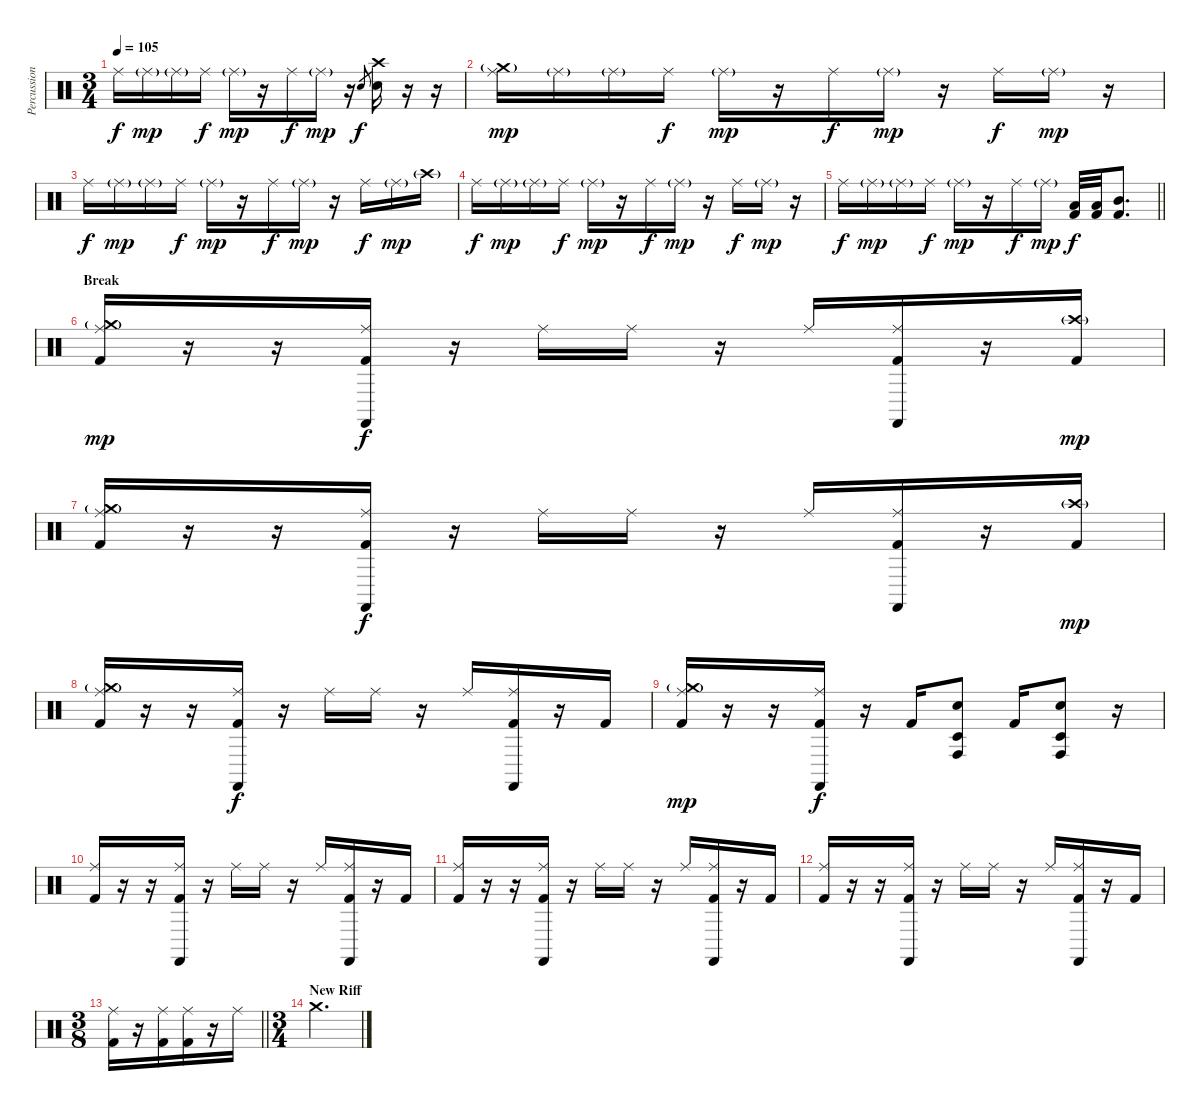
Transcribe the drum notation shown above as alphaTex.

\track ("Percussion" "Percussion") {instrument percussion}
\staff {score}
\articulation defaults
\ts (3 4)
\tempo 105
\clef neutral
\ks c "Ride (middle)".16{dy f} "Ride (middle)"{g}.16{dy mp} "Ride (middle)"{g}.16 "Ride (middle)".16{dy f} "Ride (middle)"{g}.16{dy mp}
r.16 "Ride (middle)".16{dy f} "Ride (middle)"{g}.16{dy mp} r.16 "Electric Snare (hit)".8{gr dy f} ("Crash high (hit)" "Electric Snare (hit)").16 r.16 r.16 |
("Crash medium (hit)"{g} "Ride (middle)").16{dy mp} "Ride (middle)"{g}.16 "Ride (middle)"{g}.16 "Ride (middle)".16{dy f} "Ride (middle)"{g}.16{dy mp} r.16 "Ride (middle)".16{dy f} "Ride (middle)"{g}.16{dy mp} r.16 "Ride (middle)".16{dy f} "Ride (middle)"{g}.16{dy mp} r.16 |
"Ride (middle)".16{dy f} "Ride (middle)"{g}.16{dy mp} "Ride (middle)"{g}.16 "Ride (middle)".16{dy f} "Ride (middle)"{g}.16{dy mp} r.16 "Ride (middle)".16{dy f} "Ride (middle)"{g}.16{dy mp} r.16 "Ride (middle)".16{dy f} "Ride (middle)"{g}.16{dy mp} "Crash high (hit)"{g}.16 |
"Ride (middle)".16{dy f} "Ride (middle)"{g}.16{dy mp} "Ride (middle)"{g}.16 "Ride (middle)".16{dy f} "Ride (middle)"{g}.16{dy mp} r.16 "Ride (middle)".16{dy f} "Ride (middle)"{g}.16{dy mp} r.16 "Ride (middle)".16{dy f} "Ride (middle)"{g}.16{dy mp} r.16 |
\barLineRight lightlight "Ride (middle)".16{dy f} "Ride (middle)"{g}.16{dy mp} "Ride (middle)"{g}.16 "Ride (middle)".16{dy f} "Ride (middle)"{g}.16{dy mp}
r.16 "Ride (middle)".16{dy f} "Ride (middle)"{g}.16{dy mp} ("Low Tom (hit)" "Kick (hit) 2").32{dy f} ("Low Tom (hit)" "Kick (hit) 2").32 ("Mid Tom (hit)" "Kick (hit) 2").8{d} |
\section ("" "Break")
("Crash medium (hit)"{g} "Ride (middle)" "Kick (hit) 2").16{dy mp} r.16 r.16 ("Ride (middle)" "Castanets (hit)" "Kick (hit) 2").16{dy f} r.16 "Ride (middle)".16 "Ride (middle)".16 r.16 "Ride (middle)".16 ("Ride (middle)" "Castanets (hit)" "Kick (hit) 2").16 r.16 ("Crash high (hit)"{g} "Kick (hit) 2").16{dy mp} |
("Crash medium (hit)"{g} "Ride (middle)" "Kick (hit) 2").16 r.16 r.16 ("Ride (middle)" "Castanets (hit)" "Kick (hit) 2").16{dy f} r.16 "Ride (middle)".16 "Ride (middle)".16 r.16 "Ride (middle)".16 ("Ride (middle)" "Castanets (hit)" "Kick (hit) 2").16 r.16 ("Crash high (hit)"{g} "Kick (hit) 2").16{dy mp} |
("Crash medium (hit)"{g} "Ride (middle)" "Kick (hit) 2").16 r.16 r.16 ("Ride (middle)" "Castanets (hit)" "Kick (hit) 2").16{dy f} r.16 "Ride (middle)".16 "Ride (middle)".16 r.16 "Ride (middle)".16 ("Ride (middle)" "Castanets (hit)" "Kick (hit) 2").16 r.16 "Kick (hit) 2".16 |
("Crash medium (hit)"{g} "Ride (middle)" "Kick (hit) 2").16{dy mp} r.16 r.16 ("Ride (middle)" "Castanets (hit)" "Kick (hit) 2").16{dy f} r.16 "Kick (hit) 2".16 ("Conga high (hit)" "Timbale low (hit)" "Electric Snare (hit)").8 "Kick (hit) 2".16 ("Conga high (hit)" "Timbale low (hit)" "Electric Snare (hit)").8 r.16 |
("Ride (middle)" "Kick (hit) 2").16 r.16 r.16 ("Ride (middle)" "Castanets (hit)" "Kick (hit) 2").16 r.16 "Ride (middle)".16 "Ride (middle)".16 r.16 "Ride (middle)".16 ("Ride (middle)" "Castanets (hit)" "Kick (hit) 2").16 r.16 "Kick (hit) 2".16 |
("Ride (middle)" "Kick (hit) 2").16 r.16 r.16 ("Ride (middle)" "Castanets (hit)" "Kick (hit) 2").16 r.16 "Ride (middle)".16 "Ride (middle)".16 r.16 "Ride (middle)".16 ("Ride (middle)" "Castanets (hit)" "Kick (hit) 2").16 r.16 "Kick (hit) 2".16 |
("Ride (middle)" "Kick (hit) 2").16 r.16 r.16 ("Ride (middle)" "Castanets (hit)" "Kick (hit) 2").16 r.16 "Ride (middle)".16 "Ride (middle)".16 r.16 "Ride (middle)".16 ("Ride (middle)" "Castanets (hit)" "Kick (hit) 2").16 r.16 "Kick (hit) 2".16 |
\ts (3 8)
\barLineRight lightlight
("Ride (middle)" "Kick (hit) 2").16 r.16 ("Ride (middle)" "Kick (hit) 2").16 ("Ride (middle)" "Kick (hit) 2").16 r.16 "Ride (middle)".16 |
\ts (3 4)
\section ("" "New Riff")
"Crash medium (hit)".2{d}
